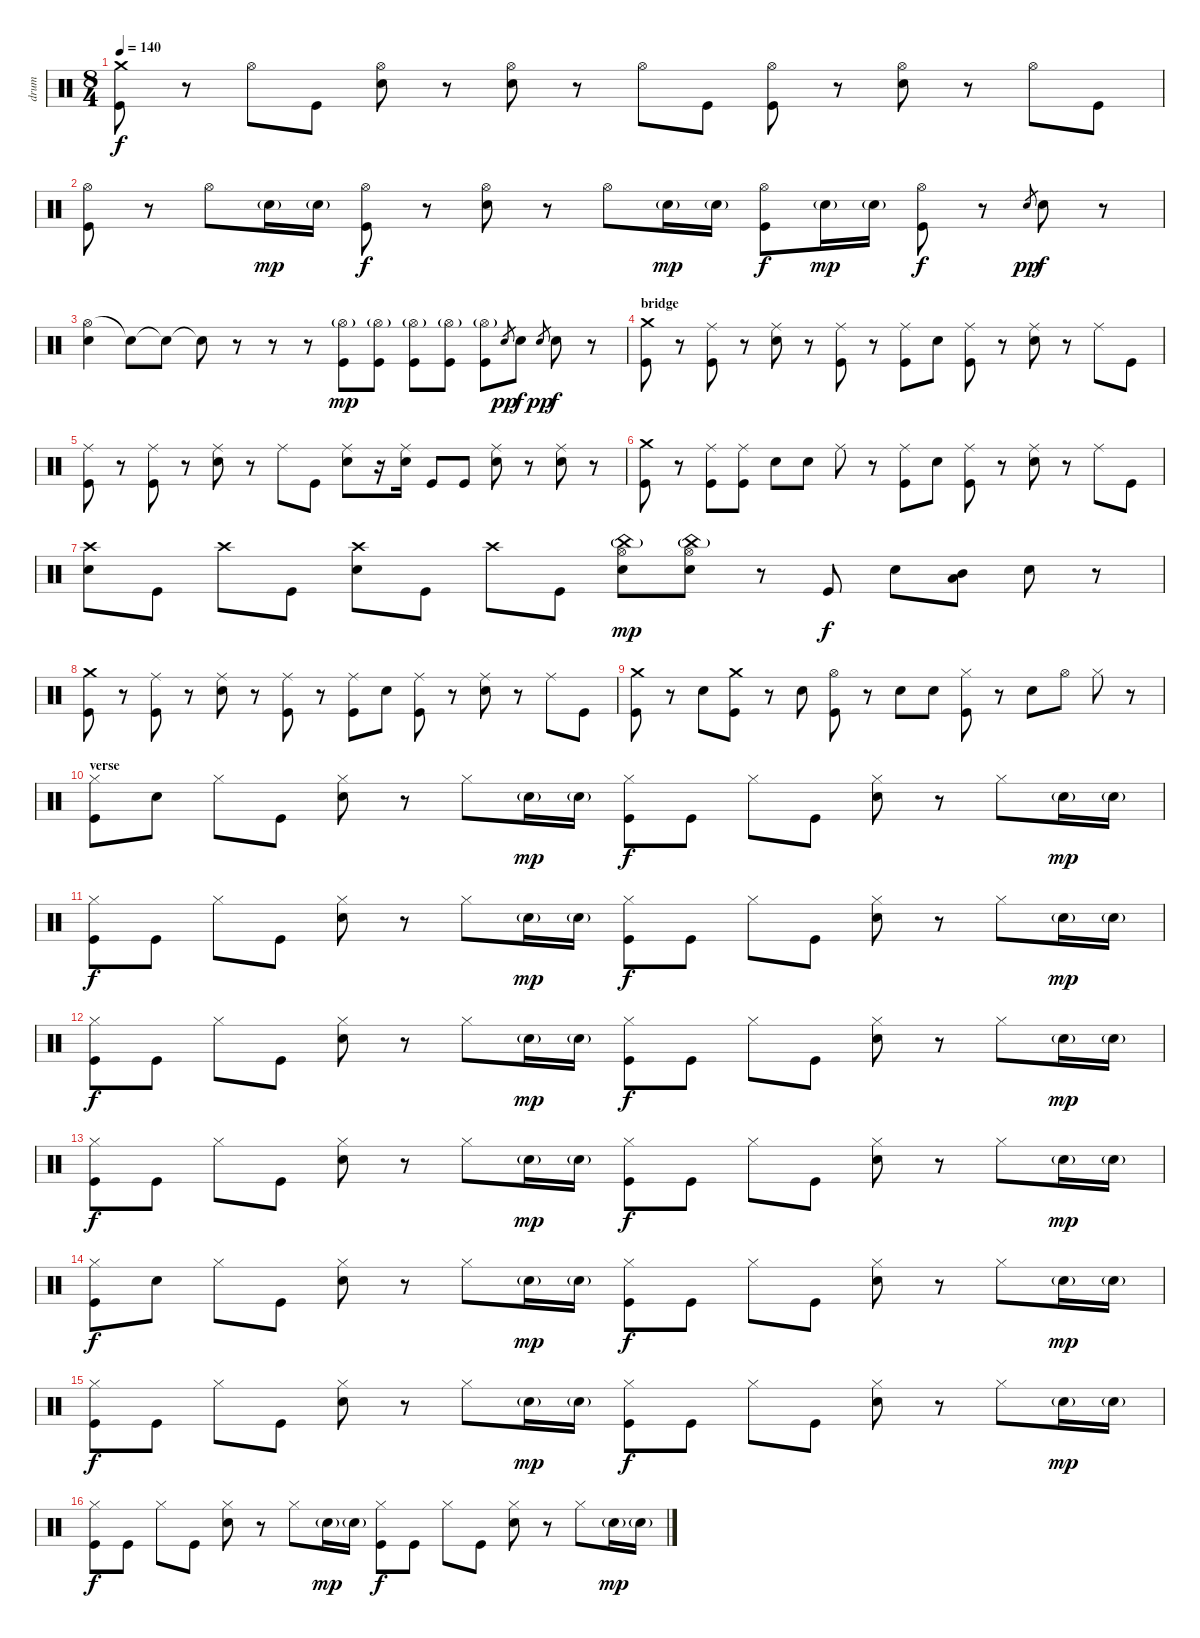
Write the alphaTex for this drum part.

\track ("drum" "drum") {instrument percussion}
\staff {score}
\articulation defaults
\ts (8 4)
\tempo 140
\clef neutral
\ks c
("Crash medium (hit)" "Kick (hit)").8{dy f} r.8 "Hi-Hat (open)".8 "Kick (hit)".8 ("Hi-Hat (open)" "Electric Snare (hit)").8 r.8 ("Hi-Hat (open)" "Electric Snare (hit)").8 r.8 "Hi-Hat (open)".8 "Kick (hit)".8 ("Hi-Hat (open)" "Kick (hit)").8 r.8 ("Hi-Hat (open)" "Electric Snare (hit)").8 r.8 "Hi-Hat (open)".8 "Kick (hit)".8 |
("Hi-Hat (open)" "Kick (hit)").8 r.8 "Hi-Hat (open)".8 "Electric Snare (hit)"{g}.16{dy mp} "Electric Snare (hit)"{g}.16 ("Hi-Hat (open)" "Kick (hit)").8{dy f} r.8 ("Hi-Hat (open)" "Electric Snare (hit)").8 r.8 "Hi-Hat (open)".8 "Electric Snare (hit)"{g}.16{dy mp} "Electric Snare (hit)"{g}.16 ("Hi-Hat (open)" "Kick (hit)").8{dy f} "Electric Snare (hit)"{g}.16{dy mp} "Electric Snare (hit)"{g}.16 ("Hi-Hat (open)" "Kick (hit)").8{dy f} r.8 "Electric Snare (hit)".8{gr dy pp} "Electric Snare (hit)".8{dy f} r.8 |
("Hi-Hat (open)" "Electric Snare (hit)").4 "Snare (hit)"{t}.8 "Snare (hit)"{t}.8 "Snare (hit)"{t}.8 r.8 r.8 r.8 ("Hi-Hat (open)"{g} "Kick (hit)").8{dy mp} ("Hi-Hat (open)"{g} "Kick (hit)").8 ("Hi-Hat (open)"{g} "Kick (hit)").8 ("Hi-Hat (open)"{g} "Kick (hit)").8 ("Hi-Hat (open)"{g} "Kick (hit)").8 "Electric Snare (hit)".8{gr dy pp} "Electric Snare (hit)".8{dy f} "Electric Snare (hit)".8{gr dy pp} "Electric Snare (hit)".8{dy f} r.8 |
\section ("" "bridge")
("Crash medium (hit)" "Kick (hit)").8 r.8 ("Ride (middle)" "Kick (hit)").8 r.8 ("Ride (middle)" "Electric Snare (hit)").8 r.8 ("Ride (middle)" "Kick (hit)").8 r.8 ("Ride (middle)" "Kick (hit)").8 "Electric Snare (hit)".8 ("Ride (middle)" "Kick (hit)").8 r.8 ("Ride (middle)" "Electric Snare (hit)").8 r.8 "Ride (middle)".8 "Kick (hit)".8 |
("Ride (middle)" "Kick (hit)").8 r.8 ("Ride (middle)" "Kick (hit)").8 r.8 ("Ride (middle)" "Electric Snare (hit)").8 r.8 "Ride (middle)".8 "Kick (hit)".8 ("Ride (middle)" "Electric Snare (hit)").8 r.16 ("Ride (middle)" "Electric Snare (hit)").16 "Kick (hit)".8 "Kick (hit)".8 ("Ride (middle)" "Electric Snare (hit)").8 r.8 ("Ride (middle)" "Electric Snare (hit)").8 r.8 |
("Crash medium (hit)" "Kick (hit)").8 r.8 ("Ride (middle)" "Kick (hit)").8 ("Ride (middle)" "Kick (hit)").8 "Electric Snare (hit)".8 "Electric Snare (hit)".8 "Ride (middle)".8 r.8 ("Ride (middle)" "Kick (hit)").8 "Electric Snare (hit)".8 ("Ride (middle)" "Kick (hit)").8 r.8 ("Ride (middle)" "Electric Snare (hit)").8 r.8 "Ride (middle)".8 "Kick (hit)".8 |
("Crash high (hit)" "Electric Snare (hit)").8 "Kick (hit)".8 "Crash high (hit)".8 "Kick (hit)".8 ("Crash high (hit)" "Electric Snare (hit)").8 "Kick (hit)".8 "Crash high (hit)".8 "Kick (hit)".8 ("Hi-Hat (open)" "China (hit)"{g} "Electric Snare (hit)").8{dy mp} ("Hi-Hat (open)" "China (hit)"{g} "Electric Snare (hit)").8 r.8 "Kick (hit)".8{dy f} "Electric Snare (hit)".8 ("Low Floor Tom (hit)" "Mid Tom (hit)").8 "Electric Snare (hit)".8 r.8 |
("Crash medium (hit)" "Kick (hit)").8 r.8 ("Ride (middle)" "Kick (hit)").8 r.8 ("Ride (middle)" "Electric Snare (hit)").8 r.8 ("Ride (middle)" "Kick (hit)").8 r.8 ("Ride (middle)" "Kick (hit)").8 "Electric Snare (hit)".8 ("Ride (middle)" "Kick (hit)").8 r.8 ("Ride (middle)" "Electric Snare (hit)").8 r.8 "Ride (middle)".8 "Kick (hit)".8 |
("Crash medium (hit)" "Kick (hit)").8 r.8 "Electric Snare (hit)".8 ("Crash medium (hit)" "Kick (hit)").8 r.8 "Electric Snare (hit)".8 ("Hi-Hat (open)" "Kick (hit)").8 r.8 "Electric Snare (hit)".8 "Electric Snare (hit)".8 ("Hi-Hat (closed)" "Kick (hit)").8 r.8 "Electric Snare (hit)".8 "Hi-Hat (open)".8 "Hi-Hat (closed)".8 r.8 |
\section ("" "verse")
("Hi-Hat (closed)" "Kick (hit)").8{volume 16} "Electric Snare (hit)".8 "Hi-Hat (closed)".8 "Kick (hit)".8 ("Hi-Hat (closed)" "Electric Snare (hit)").8 r.8 "Hi-Hat (closed)".8 "Electric Snare (hit)"{g}.16{dy mp volume 11} "Electric Snare (hit)"{g}.16 ("Hi-Hat (closed)" "Kick (hit)").8{dy f volume 16} "Kick (hit)".8 "Hi-Hat (closed)".8 "Kick (hit)".8 ("Hi-Hat (closed)" "Electric Snare (hit)").8 r.8 "Hi-Hat (closed)".8 "Electric Snare (hit)"{g}.16{dy mp volume 11} "Electric Snare (hit)"{g}.16 |
("Hi-Hat (closed)" "Kick (hit)").8{dy f volume 16} "Kick (hit)".8 "Hi-Hat (closed)".8 "Kick (hit)".8 ("Hi-Hat (closed)" "Electric Snare (hit)").8 r.8 "Hi-Hat (closed)".8 "Electric Snare (hit)"{g}.16{dy mp volume 11} "Electric Snare (hit)"{g}.16 ("Hi-Hat (closed)" "Kick (hit)").8{dy f volume 16} "Kick (hit)".8 "Hi-Hat (closed)".8 "Kick (hit)".8 ("Hi-Hat (closed)" "Electric Snare (hit)").8 r.8 "Hi-Hat (closed)".8 "Electric Snare (hit)"{g}.16{dy mp volume 11} "Electric Snare (hit)"{g}.16 |
("Hi-Hat (closed)" "Kick (hit)").8{dy f volume 16} "Kick (hit)".8 "Hi-Hat (closed)".8 "Kick (hit)".8 ("Hi-Hat (closed)" "Electric Snare (hit)").8 r.8 "Hi-Hat (closed)".8 "Electric Snare (hit)"{g}.16{dy mp volume 11} "Electric Snare (hit)"{g}.16 ("Hi-Hat (closed)" "Kick (hit)").8{dy f volume 16} "Kick (hit)".8 "Hi-Hat (closed)".8 "Kick (hit)".8 ("Hi-Hat (closed)" "Electric Snare (hit)").8 r.8 "Hi-Hat (closed)".8 "Electric Snare (hit)"{g}.16{dy mp volume 11} "Electric Snare (hit)"{g}.16 |
("Hi-Hat (closed)" "Kick (hit)").8{dy f volume 16} "Kick (hit)".8 "Hi-Hat (closed)".8 "Kick (hit)".8 ("Hi-Hat (closed)" "Electric Snare (hit)").8 r.8 "Hi-Hat (closed)".8 "Electric Snare (hit)"{g}.16{dy mp volume 11} "Electric Snare (hit)"{g}.16 ("Hi-Hat (closed)" "Kick (hit)").8{dy f volume 16} "Kick (hit)".8 "Hi-Hat (closed)".8 "Kick (hit)".8 ("Hi-Hat (closed)" "Electric Snare (hit)").8 r.8 "Hi-Hat (closed)".8 "Electric Snare (hit)"{g}.16{dy mp volume 11} "Electric Snare (hit)"{g}.16 |
("Hi-Hat (closed)" "Kick (hit)").8{dy f volume 16} "Electric Snare (hit)".8 "Hi-Hat (closed)".8 "Kick (hit)".8 ("Hi-Hat (closed)" "Electric Snare (hit)").8 r.8 "Hi-Hat (closed)".8 "Electric Snare (hit)"{g}.16{dy mp volume 11} "Electric Snare (hit)"{g}.16 ("Hi-Hat (closed)" "Kick (hit)").8{dy f volume 16} "Kick (hit)".8 "Hi-Hat (closed)".8 "Kick (hit)".8 ("Hi-Hat (closed)" "Electric Snare (hit)").8 r.8 "Hi-Hat (closed)".8 "Electric Snare (hit)"{g}.16{dy mp volume 11} "Electric Snare (hit)"{g}.16 |
("Hi-Hat (closed)" "Kick (hit)").8{dy f volume 16} "Kick (hit)".8 "Hi-Hat (closed)".8 "Kick (hit)".8 ("Hi-Hat (closed)" "Electric Snare (hit)").8 r.8 "Hi-Hat (closed)".8 "Electric Snare (hit)"{g}.16{dy mp volume 11} "Electric Snare (hit)"{g}.16 ("Hi-Hat (closed)" "Kick (hit)").8{dy f volume 16} "Kick (hit)".8 "Hi-Hat (closed)".8 "Kick (hit)".8 ("Hi-Hat (closed)" "Electric Snare (hit)").8 r.8 "Hi-Hat (closed)".8 "Electric Snare (hit)"{g}.16{dy mp volume 11} "Electric Snare (hit)"{g}.16 |
("Hi-Hat (closed)" "Kick (hit)").8{dy f volume 16} "Kick (hit)".8 "Hi-Hat (closed)".8 "Kick (hit)".8 ("Hi-Hat (closed)" "Electric Snare (hit)").8 r.8 "Hi-Hat (closed)".8 "Electric Snare (hit)"{g}.16{dy mp volume 11} "Electric Snare (hit)"{g}.16 ("Hi-Hat (closed)" "Kick (hit)").8{dy f volume 16} "Kick (hit)".8 "Hi-Hat (closed)".8 "Kick (hit)".8 ("Hi-Hat (closed)" "Electric Snare (hit)").8 r.8 "Hi-Hat (closed)".8 "Electric Snare (hit)"{g}.16{dy mp volume 11} "Electric Snare (hit)"{g}.16
